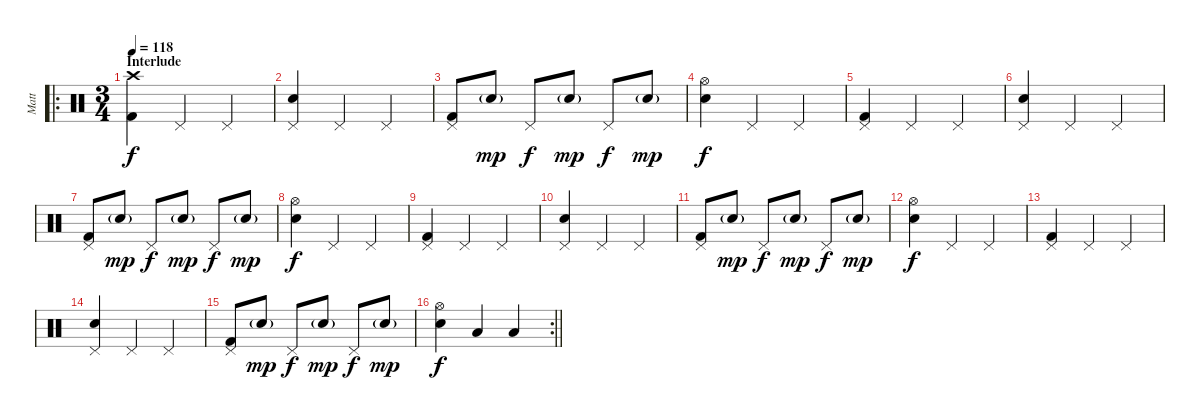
\track ("Matt" "Matt") {instrument percussion}
\staff {score}
\articulation defaults
\ro
\ts (3 4)
\section ("" "Interlude")
\tempo 118
\clef neutral
\ks c
("Crash high (hit)" "Kick (hit) 2").4{dy f} "Pedal Hi-Hat (hit)".4 "Pedal Hi-Hat (hit)".4 |
("Pedal Hi-Hat (hit)" "Snare (hit) 2").4 "Pedal Hi-Hat (hit)".4 "Pedal Hi-Hat (hit)".4 |
("Pedal Hi-Hat (hit)" "Kick (hit) 2").8 "Snare (hit) 2"{g}.8{dy mp} "Pedal Hi-Hat (hit)".8{dy f} "Snare (hit) 2"{g}.8{dy mp} "Pedal Hi-Hat (hit)".8{dy f} "Snare (hit) 2"{g}.8{dy mp} |
("Hi-Hat (open)" "Snare (hit) 2").4{dy f} "Pedal Hi-Hat (hit)".4 "Pedal Hi-Hat (hit)".4 |
("Pedal Hi-Hat (hit)" "Kick (hit) 2").4 "Pedal Hi-Hat (hit)".4 "Pedal Hi-Hat (hit)".4 |
("Pedal Hi-Hat (hit)" "Snare (hit) 2").4 "Pedal Hi-Hat (hit)".4 "Pedal Hi-Hat (hit)".4 |
("Pedal Hi-Hat (hit)" "Kick (hit) 2").8 "Snare (hit) 2"{g}.8{dy mp} "Pedal Hi-Hat (hit)".8{dy f} "Snare (hit) 2"{g}.8{dy mp} "Pedal Hi-Hat (hit)".8{dy f} "Snare (hit) 2"{g}.8{dy mp} |
("Hi-Hat (open)" "Snare (hit) 2").4{dy f} "Pedal Hi-Hat (hit)".4 "Pedal Hi-Hat (hit)".4 |
("Pedal Hi-Hat (hit)" "Kick (hit) 2").4 "Pedal Hi-Hat (hit)".4 "Pedal Hi-Hat (hit)".4 |
("Pedal Hi-Hat (hit)" "Snare (hit) 2").4 "Pedal Hi-Hat (hit)".4 "Pedal Hi-Hat (hit)".4 |
("Pedal Hi-Hat (hit)" "Kick (hit) 2").8 "Snare (hit) 2"{g}.8{dy mp} "Pedal Hi-Hat (hit)".8{dy f} "Snare (hit) 2"{g}.8{dy mp} "Pedal Hi-Hat (hit)".8{dy f} "Snare (hit) 2"{g}.8{dy mp} |
("Hi-Hat (open)" "Snare (hit) 2").4{dy f} "Pedal Hi-Hat (hit)".4 "Pedal Hi-Hat (hit)".4 |
("Pedal Hi-Hat (hit)" "Kick (hit) 2").4 "Pedal Hi-Hat (hit)".4 "Pedal Hi-Hat (hit)".4 |
("Pedal Hi-Hat (hit)" "Snare (hit) 2").4 "Pedal Hi-Hat (hit)".4 "Pedal Hi-Hat (hit)".4 |
("Pedal Hi-Hat (hit)" "Kick (hit) 2").8 "Electric Snare (hit)"{g}.8{dy mp} "Pedal Hi-Hat (hit)".8{dy f} "Snare (hit) 2"{g}.8{dy mp} "Pedal Hi-Hat (hit)".8{dy f} "Snare (hit) 2"{g}.8{dy mp} |
\rc 2
\barLineRight lightlight
("Hi-Hat (open)" "Snare (hit) 2").4{dy f} "Low Tom (hit)".4 "Low Floor Tom (hit)".4
